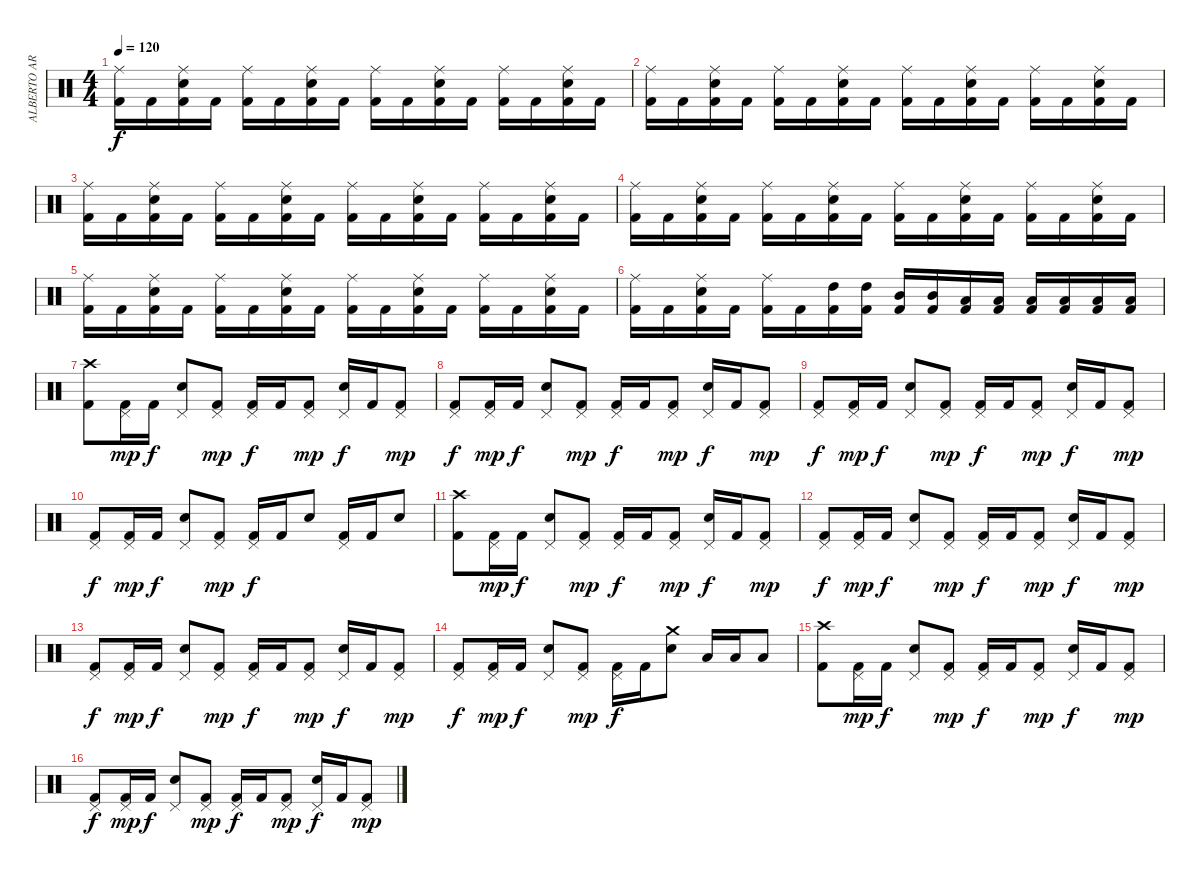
\track ("ALBERTO ARDINES" "ALBERTO AR") {instrument percussion}
\staff {score}
\articulation defaults
\ts (4 4)
\tempo 120
\clef neutral
\ks c
("Ride (middle)" "Kick (hit) 2").16{dy f} "Kick (hit) 2".16 ("Ride (middle)" "Electric Snare (hit)" "Kick (hit) 2").16 "Kick (hit) 2".16 ("Ride (middle)" "Kick (hit) 2").16 "Kick (hit) 2".16 ("Ride (middle)" "Electric Snare (hit)" "Kick (hit) 2").16 "Kick (hit) 2".16 ("Ride (middle)" "Kick (hit) 2").16 "Kick (hit) 2".16 ("Ride (middle)" "Electric Snare (hit)" "Kick (hit) 2").16 "Kick (hit) 2".16 ("Ride (middle)" "Kick (hit) 2").16 "Kick (hit) 2".16 ("Ride (middle)" "Electric Snare (hit)" "Kick (hit) 2").16 "Kick (hit) 2".16 |
("Ride (middle)" "Kick (hit) 2").16 "Kick (hit) 2".16 ("Ride (middle)" "Electric Snare (hit)" "Kick (hit) 2").16 "Kick (hit) 2".16 ("Ride (middle)" "Kick (hit) 2").16 "Kick (hit) 2".16 ("Ride (middle)" "Electric Snare (hit)" "Kick (hit) 2").16 "Kick (hit) 2".16 ("Ride (middle)" "Kick (hit) 2").16 "Kick (hit) 2".16 ("Ride (middle)" "Electric Snare (hit)" "Kick (hit) 2").16 "Kick (hit) 2".16 ("Ride (middle)" "Kick (hit) 2").16 "Kick (hit) 2".16 ("Ride (middle)" "Electric Snare (hit)" "Kick (hit) 2").16 "Kick (hit) 2".16 |
("Ride (middle)" "Kick (hit) 2").16 "Kick (hit) 2".16 ("Ride (middle)" "Electric Snare (hit)" "Kick (hit) 2").16 "Kick (hit) 2".16 ("Ride (middle)" "Kick (hit) 2").16 "Kick (hit) 2".16 ("Ride (middle)" "Electric Snare (hit)" "Kick (hit) 2").16 "Kick (hit) 2".16 ("Ride (middle)" "Kick (hit) 2").16 "Kick (hit) 2".16 ("Ride (middle)" "Electric Snare (hit)" "Kick (hit) 2").16 "Kick (hit) 2".16 ("Ride (middle)" "Kick (hit) 2").16 "Kick (hit) 2".16 ("Ride (middle)" "Electric Snare (hit)" "Kick (hit) 2").16 "Kick (hit) 2".16 |
("Ride (middle)" "Kick (hit) 2").16 "Kick (hit) 2".16 ("Ride (middle)" "Electric Snare (hit)" "Kick (hit) 2").16 "Kick (hit) 2".16 ("Ride (middle)" "Kick (hit) 2").16 "Kick (hit) 2".16 ("Ride (middle)" "Electric Snare (hit)" "Kick (hit) 2").16 "Kick (hit) 2".16 ("Ride (middle)" "Kick (hit) 2").16 "Kick (hit) 2".16 ("Ride (middle)" "Electric Snare (hit)" "Kick (hit) 2").16 "Kick (hit) 2".16 ("Ride (middle)" "Kick (hit) 2").16 "Kick (hit) 2".16 ("Ride (middle)" "Electric Snare (hit)" "Kick (hit) 2").16 "Kick (hit) 2".16 |
("Ride (middle)" "Kick (hit) 2").16 "Kick (hit) 2".16 ("Ride (middle)" "Electric Snare (hit)" "Kick (hit) 2").16 "Kick (hit) 2".16 ("Ride (middle)" "Kick (hit) 2").16 "Kick (hit) 2".16 ("Ride (middle)" "Electric Snare (hit)" "Kick (hit) 2").16 "Kick (hit) 2".16 ("Ride (middle)" "Kick (hit) 2").16 "Kick (hit) 2".16 ("Ride (middle)" "Electric Snare (hit)" "Kick (hit) 2").16 "Kick (hit) 2".16 ("Ride (middle)" "Kick (hit) 2").16 "Kick (hit) 2".16 ("Ride (middle)" "Electric Snare (hit)" "Kick (hit) 2").16 "Kick (hit) 2".16 |
("Ride (middle)" "Kick (hit) 2").16 "Kick (hit) 2".16 ("Ride (middle)" "Electric Snare (hit)" "Kick (hit) 2").16 "Kick (hit) 2".16 ("Ride (middle)" "Kick (hit) 2").16 "Kick (hit) 2".16 ("High Tom (hit)" "Kick (hit) 2").16 ("High Tom (hit)" "Kick (hit) 2").16 ("Mid Tom (hit)" "Kick (hit) 2").16 ("Mid Tom (hit)" "Kick (hit) 2").16 ("Low Tom (hit)" "Kick (hit) 2").16 ("Low Tom (hit)" "Kick (hit) 2").16 ("Low Tom (hit)" "Kick (hit) 2").16 ("Low Floor Tom (hit)" "Kick (hit) 2").16 ("Low Floor Tom (hit)" "Kick (hit) 2").16 ("Low Floor Tom (hit)" "Kick (hit) 2").16 |
("Crash high (hit)" "Kick (hit) 2").8 ("Pedal Hi-Hat (hit)" "Kick (hit) 2").16{dy mp} "Kick (hit) 2".16{dy f} ("Pedal Hi-Hat (hit)" "Electric Snare (hit)").8 ("Pedal Hi-Hat (hit)" "Kick (hit) 2").8{dy mp} ("Pedal Hi-Hat (hit)" "Kick (hit) 2").16{dy f} "Kick (hit) 2".16 ("Pedal Hi-Hat (hit)" "Kick (hit) 2").8{dy mp} ("Pedal Hi-Hat (hit)" "Electric Snare (hit)").16{dy f} "Kick (hit) 2".16 ("Pedal Hi-Hat (hit)" "Kick (hit) 2").8{dy mp} |
("Pedal Hi-Hat (hit)" "Kick (hit) 2").8{dy f} ("Pedal Hi-Hat (hit)" "Kick (hit) 2").16{dy mp} "Kick (hit) 2".16{dy f} ("Pedal Hi-Hat (hit)" "Electric Snare (hit)").8 ("Pedal Hi-Hat (hit)" "Kick (hit) 2").8{dy mp} ("Pedal Hi-Hat (hit)" "Kick (hit) 2").16{dy f} "Kick (hit) 2".16 ("Pedal Hi-Hat (hit)" "Kick (hit) 2").8{dy mp} ("Pedal Hi-Hat (hit)" "Electric Snare (hit)").16{dy f} "Kick (hit) 2".16 ("Pedal Hi-Hat (hit)" "Kick (hit) 2").8{dy mp} |
("Pedal Hi-Hat (hit)" "Kick (hit) 2").8{dy f} ("Pedal Hi-Hat (hit)" "Kick (hit) 2").16{dy mp} "Kick (hit) 2".16{dy f} ("Pedal Hi-Hat (hit)" "Electric Snare (hit)").8 ("Pedal Hi-Hat (hit)" "Kick (hit) 2").8{dy mp} ("Pedal Hi-Hat (hit)" "Kick (hit) 2").16{dy f} "Kick (hit) 2".16 ("Pedal Hi-Hat (hit)" "Kick (hit) 2").8{dy mp} ("Pedal Hi-Hat (hit)" "Electric Snare (hit)").16{dy f} "Kick (hit) 2".16 ("Pedal Hi-Hat (hit)" "Kick (hit) 2").8{dy mp} |
("Pedal Hi-Hat (hit)" "Kick (hit) 2").8{dy f} ("Pedal Hi-Hat (hit)" "Kick (hit) 2").16{dy mp} "Kick (hit) 2".16{dy f} ("Pedal Hi-Hat (hit)" "Electric Snare (hit)").8 ("Pedal Hi-Hat (hit)" "Kick (hit) 2").8{dy mp} ("Pedal Hi-Hat (hit)" "Kick (hit) 2").16{dy f} "Kick (hit) 2".16 "Electric Snare (hit)".8 ("Pedal Hi-Hat (hit)" "Kick (hit) 2").16 "Kick (hit) 2".16 "Electric Snare (hit)".8 |
("Crash high (hit)" "Kick (hit) 2").8 ("Pedal Hi-Hat (hit)" "Kick (hit) 2").16{dy mp} "Kick (hit) 2".16{dy f} ("Pedal Hi-Hat (hit)" "Electric Snare (hit)").8 ("Pedal Hi-Hat (hit)" "Kick (hit) 2").8{dy mp} ("Pedal Hi-Hat (hit)" "Kick (hit) 2").16{dy f} "Kick (hit) 2".16 ("Pedal Hi-Hat (hit)" "Kick (hit) 2").8{dy mp} ("Pedal Hi-Hat (hit)" "Electric Snare (hit)").16{dy f} "Kick (hit) 2".16 ("Pedal Hi-Hat (hit)" "Kick (hit) 2").8{dy mp} |
("Pedal Hi-Hat (hit)" "Kick (hit) 2").8{dy f} ("Pedal Hi-Hat (hit)" "Kick (hit) 2").16{dy mp} "Kick (hit) 2".16{dy f} ("Pedal Hi-Hat (hit)" "Electric Snare (hit)").8 ("Pedal Hi-Hat (hit)" "Kick (hit) 2").8{dy mp} ("Pedal Hi-Hat (hit)" "Kick (hit) 2").16{dy f} "Kick (hit) 2".16 ("Pedal Hi-Hat (hit)" "Kick (hit) 2").8{dy mp} ("Pedal Hi-Hat (hit)" "Electric Snare (hit)").16{dy f} "Kick (hit) 2".16 ("Pedal Hi-Hat (hit)" "Kick (hit) 2").8{dy mp} |
("Pedal Hi-Hat (hit)" "Kick (hit) 2").8{dy f} ("Pedal Hi-Hat (hit)" "Kick (hit) 2").16{dy mp} "Kick (hit) 2".16{dy f} ("Pedal Hi-Hat (hit)" "Electric Snare (hit)").8 ("Pedal Hi-Hat (hit)" "Kick (hit) 2").8{dy mp} ("Pedal Hi-Hat (hit)" "Kick (hit) 2").16{dy f} "Kick (hit) 2".16 ("Pedal Hi-Hat (hit)" "Kick (hit) 2").8{dy mp} ("Pedal Hi-Hat (hit)" "Electric Snare (hit)").16{dy f} "Kick (hit) 2".16 ("Pedal Hi-Hat (hit)" "Kick (hit) 2").8{dy mp} |
("Pedal Hi-Hat (hit)" "Kick (hit) 2").8{dy f} ("Pedal Hi-Hat (hit)" "Kick (hit) 2").16{dy mp} "Kick (hit) 2".16{dy f} ("Pedal Hi-Hat (hit)" "Electric Snare (hit)").8 ("Pedal Hi-Hat (hit)" "Kick (hit) 2").8{dy mp} ("Pedal Hi-Hat (hit)" "Kick (hit) 2").16{dy f} "Kick (hit) 2".16 ("Crash medium (hit)" "Electric Snare (hit)").8 "Low Tom (hit)".16 "Low Tom (hit)".16 "Low Tom (hit)".8 |
("Crash high (hit)" "Kick (hit) 2").8 ("Pedal Hi-Hat (hit)" "Kick (hit) 2").16{dy mp} "Kick (hit) 2".16{dy f} ("Pedal Hi-Hat (hit)" "Electric Snare (hit)").8 ("Pedal Hi-Hat (hit)" "Kick (hit) 2").8{dy mp} ("Pedal Hi-Hat (hit)" "Kick (hit) 2").16{dy f} "Kick (hit) 2".16 ("Pedal Hi-Hat (hit)" "Kick (hit) 2").8{dy mp} ("Pedal Hi-Hat (hit)" "Electric Snare (hit)").16{dy f} "Kick (hit) 2".16 ("Pedal Hi-Hat (hit)" "Kick (hit) 2").8{dy mp} |
("Pedal Hi-Hat (hit)" "Kick (hit) 2").8{dy f} ("Pedal Hi-Hat (hit)" "Kick (hit) 2").16{dy mp} "Kick (hit) 2".16{dy f} ("Pedal Hi-Hat (hit)" "Electric Snare (hit)").8 ("Pedal Hi-Hat (hit)" "Kick (hit) 2").8{dy mp} ("Pedal Hi-Hat (hit)" "Kick (hit) 2").16{dy f} "Kick (hit) 2".16 ("Pedal Hi-Hat (hit)" "Kick (hit) 2").8{dy mp} ("Pedal Hi-Hat (hit)" "Electric Snare (hit)").16{dy f} "Kick (hit) 2".16 ("Pedal Hi-Hat (hit)" "Kick (hit) 2").8{dy mp}
